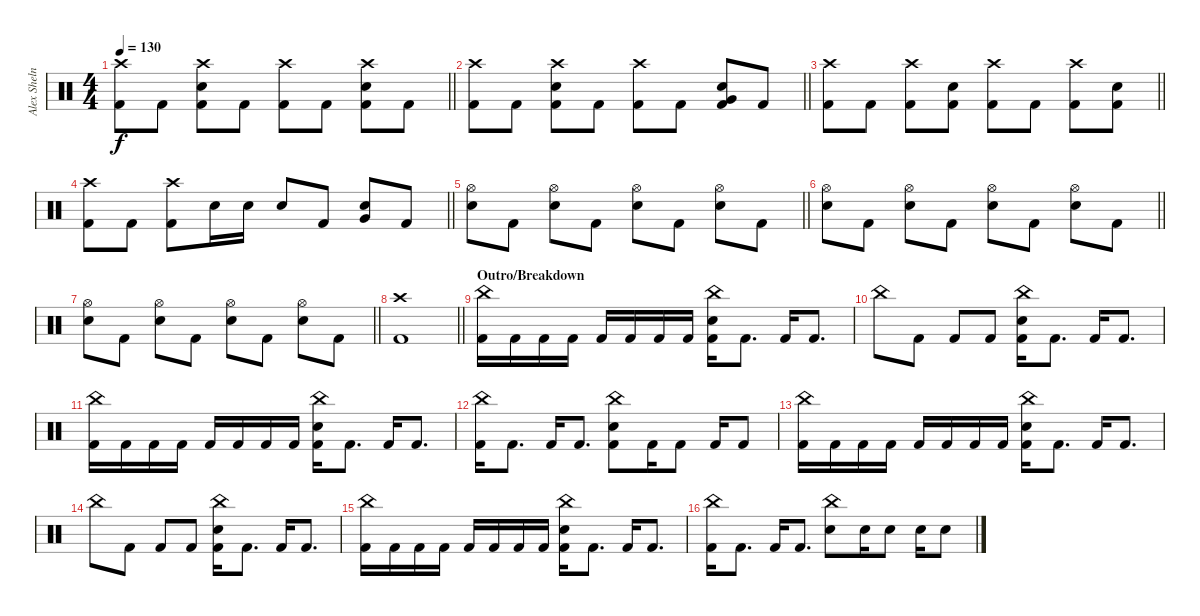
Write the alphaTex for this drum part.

\track ("Alex Shelnutt [Drums]" "Alex Sheln") {instrument percussion}
\staff {score}
\articulation defaults
\ts (4 4)
\tempo 130
\clef neutral
\barLineRight lightlight
\ks c
("Crash high (hit)" "Kick (hit) 2").8{dy f} "Kick (hit) 2".8 ("Crash high (hit)" "Electric Snare (hit)" "Kick (hit) 2").8 "Kick (hit) 2".8 ("Crash high (hit)" "Kick (hit) 2").8 "Kick (hit) 2".8 ("Crash high (hit)" "Electric Snare (hit)" "Kick (hit) 2").8 "Kick (hit) 2".8 |
\barLineRight lightlight
("Crash high (hit)" "Kick (hit) 2").8 "Kick (hit) 2".8 ("Crash high (hit)" "Electric Snare (hit)" "Kick (hit) 2").8 "Kick (hit) 2".8 ("Crash high (hit)" "Kick (hit) 2").8 "Kick (hit) 2".8 ("Very Low Tom (hit)" "Electric Snare (hit)" "Kick (hit) 2").8 "Kick (hit) 2".8 |
\barLineRight lightlight
("Crash high (hit)" "Kick (hit) 2").8 "Kick (hit) 2".8 ("Crash high (hit)" "Kick (hit) 2").8 ("Electric Snare (hit)" "Kick (hit) 2").8 ("Crash high (hit)" "Kick (hit) 2").8 "Kick (hit) 2".8 ("Crash high (hit)" "Kick (hit) 2").8 ("Electric Snare (hit)" "Kick (hit) 2").8 |
\barLineRight lightlight
("Crash high (hit)" "Kick (hit) 2").8 "Kick (hit) 2".8 ("Crash high (hit)" "Kick (hit) 2").8 "Electric Snare (hit)".16 "Electric Snare (hit)".16 "Electric Snare (hit)".8 "Kick (hit) 2".8 ("Very Low Tom (hit)" "Electric Snare (hit)").8 "Kick (hit) 2".8 |
\barLineRight lightlight
("Hi-Hat (open)" "Electric Snare (hit)").8 "Kick (hit) 2".8 ("Hi-Hat (open)" "Electric Snare (hit)").8 "Kick (hit) 2".8 ("Hi-Hat (open)" "Electric Snare (hit)").8 "Kick (hit) 2".8 ("Hi-Hat (open)" "Electric Snare (hit)").8 "Kick (hit) 2".8 |
\barLineRight lightlight
("Hi-Hat (open)" "Electric Snare (hit)").8 "Kick (hit) 2".8 ("Hi-Hat (open)" "Electric Snare (hit)").8 "Kick (hit) 2".8 ("Hi-Hat (open)" "Electric Snare (hit)").8 "Kick (hit) 2".8 ("Hi-Hat (open)" "Electric Snare (hit)").8 "Kick (hit) 2".8 |
\barLineRight lightlight
("Hi-Hat (open)" "Electric Snare (hit)").8 "Kick (hit) 2".8 ("Hi-Hat (open)" "Electric Snare (hit)").8 "Kick (hit) 2".8 ("Hi-Hat (open)" "Electric Snare (hit)").8 "Kick (hit) 2".8 ("Hi-Hat (open)" "Electric Snare (hit)").8 "Kick (hit) 2".8 |
\barLineRight lightlight
("Crash high (hit)" "Kick (hit) 2").1 |
\section ("" "Outro/Breakdown")
("China (hit)" "Kick (hit) 2").16 "Kick (hit) 2".16 "Kick (hit) 2".16 "Kick (hit) 2".16 "Kick (hit) 2".16 "Kick (hit) 2".16 "Kick (hit) 2".16 "Kick (hit) 2".16 ("China (hit)" "Electric Snare (hit)" "Kick (hit) 2").16 "Kick (hit) 2".8{d} "Kick (hit) 2".16 "Kick (hit) 2".8{d} |
"China (hit)".8 "Kick (hit) 2".8 "Kick (hit) 2".8 "Kick (hit) 2".8 ("China (hit)" "Electric Snare (hit)" "Kick (hit) 2").16 "Kick (hit) 2".8{d} "Kick (hit) 2".16 "Kick (hit) 2".8{d} |
("China (hit)" "Kick (hit) 2").16 "Kick (hit) 2".16 "Kick (hit) 2".16 "Kick (hit) 2".16 "Kick (hit) 2".16 "Kick (hit) 2".16 "Kick (hit) 2".16 "Kick (hit) 2".16 ("China (hit)" "Electric Snare (hit)" "Kick (hit) 2").16 "Kick (hit) 2".8{d} "Kick (hit) 2".16 "Kick (hit) 2".8{d} |
("China (hit)" "Kick (hit) 2").16 "Kick (hit) 2".8{d} "Kick (hit) 2".16 "Kick (hit) 2".8{d} ("China (hit)" "Electric Snare (hit)" "Kick (hit) 2").8 "Kick (hit) 2".16 "Kick (hit) 2".8 "Kick (hit) 2".16 "Kick (hit) 2".8 |
("China (hit)" "Kick (hit) 2").16 "Kick (hit) 2".16 "Kick (hit) 2".16 "Kick (hit) 2".16 "Kick (hit) 2".16 "Kick (hit) 2".16 "Kick (hit) 2".16 "Kick (hit) 2".16 ("China (hit)" "Electric Snare (hit)" "Kick (hit) 2").16 "Kick (hit) 2".8{d} "Kick (hit) 2".16 "Kick (hit) 2".8{d} |
"China (hit)".8 "Kick (hit) 2".8 "Kick (hit) 2".8 "Kick (hit) 2".8 ("China (hit)" "Electric Snare (hit)" "Kick (hit) 2").16 "Kick (hit) 2".8{d} "Kick (hit) 2".16 "Kick (hit) 2".8{d} |
("China (hit)" "Kick (hit) 2").16 "Kick (hit) 2".16 "Kick (hit) 2".16 "Kick (hit) 2".16 "Kick (hit) 2".16 "Kick (hit) 2".16 "Kick (hit) 2".16 "Kick (hit) 2".16 ("China (hit)" "Electric Snare (hit)" "Kick (hit) 2").16 "Kick (hit) 2".8{d} "Kick (hit) 2".16 "Kick (hit) 2".8{d} |
("China (hit)" "Kick (hit) 2").16 "Kick (hit) 2".8{d} "Kick (hit) 2".16 "Kick (hit) 2".8{d} ("China (hit)" "Electric Snare (hit)").8 "Electric Snare (hit)".16 "Electric Snare (hit)".8 "Electric Snare (hit)".16 "Electric Snare (hit)".8
